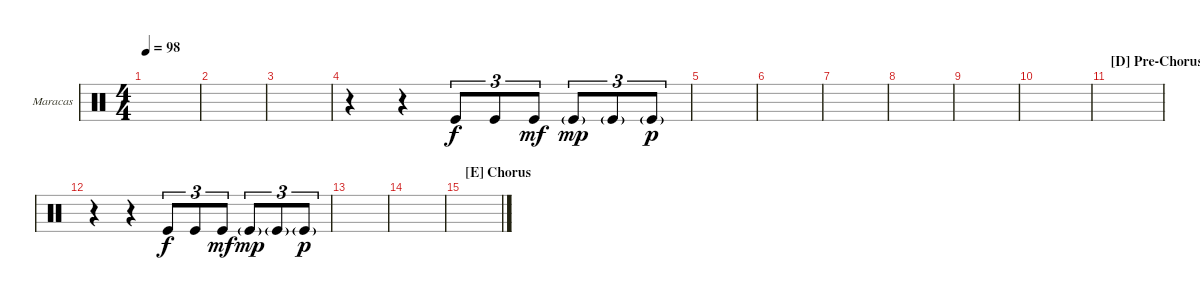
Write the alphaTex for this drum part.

\defaultSystemsLayout 4
\bracketExtendMode groupsimilarinstruments
\firstSystemTrackNameOrientation horizontal
\otherSystemsTrackNameOrientation horizontal
\track ("Maracas" "Maracas") {instrument percussion}
\staff {score}
\articulation defaults
\ts (4 4)
\tempo 98
\clef neutral
\ks c
|
|
|
r.4 r.4 "Kick (hit)".8{tu (3 2) dy f} "Kick (hit)".8{tu (3 2)} "Kick (hit)".8{tu (3 2) dy mf} "Kick (hit)"{g}.8{tu (3 2) dy mp} "Kick (hit)"{g}.8{tu (3 2)} "Kick (hit)"{g}.8{tu (3 2) dy p} |
|
|
|
|
|
|
\section ("D" "Pre-Chorus")
|
r.4 r.4 "Kick (hit)".8{tu (3 2) dy f} "Kick (hit)".8{tu (3 2)} "Kick (hit)".8{tu (3 2) dy mf} "Kick (hit)"{g}.8{tu (3 2) dy mp} "Kick (hit)"{g}.8{tu (3 2)} "Kick (hit)"{g}.8{tu (3 2) dy p} |
|
|
\section ("E" "Chorus")
